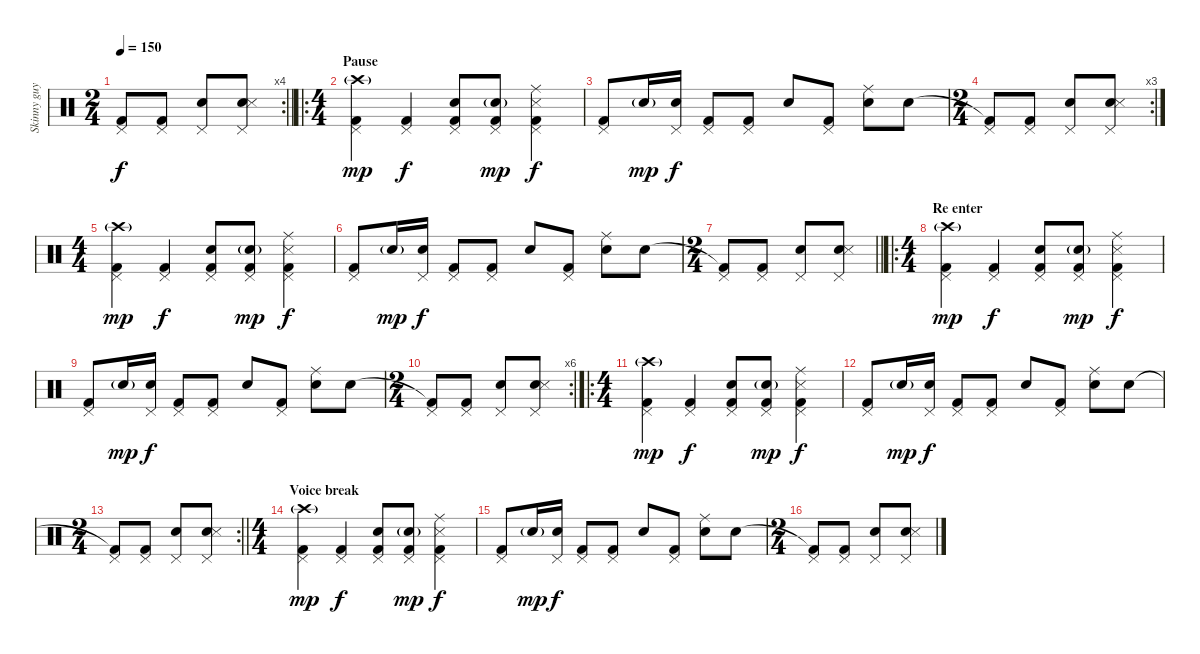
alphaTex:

\track ("Skinny guy" "Skinny guy") {instrument percussion}
\staff {score}
\articulation defaults
\rc 4
\ts (2 4)
\tempo 150
\clef neutral
\barLineRight lightlight
\ks c
("Kick (hit) 2"{t} "Pedal Hi-Hat (hit)").8{dy f} ("Kick (hit) 2" "Pedal Hi-Hat (hit)").8 ("Pedal Hi-Hat (hit)" "Snare (hit) 2").8 ("Pedal Hi-Hat (hit)" "Snare (hit) 2" "Snare (side stick) 3").8 |
\ro
\ts (4 4)
\section ("" "Pause")
("Kick (hit) 2" "Pedal Hi-Hat (hit)" "Crash high (hit)"{g}).4{dy mp} ("Kick (hit) 2" "Pedal Hi-Hat (hit)").4{dy f} ("Kick (hit) 2" "Pedal Hi-Hat (hit)" "Snare (hit) 2").8 ("Kick (hit) 2" "Pedal Hi-Hat (hit)" "Snare (hit) 2"{g}).8{dy mp} ("Kick (hit) 2" "Pedal Hi-Hat (hit)" "Snare (side stick) 3" "Ride (middle)").4{dy f} |
("Kick (hit) 2" "Pedal Hi-Hat (hit)").8 "Snare (hit) 2"{g}.16{dy mp} ("Pedal Hi-Hat (hit)" "Snare (hit) 2").16{dy f} ("Kick (hit) 2" "Pedal Hi-Hat (hit)").8 ("Kick (hit) 2" "Pedal Hi-Hat (hit)").8 "Snare (hit) 2".8 ("Kick (hit) 2" "Pedal Hi-Hat (hit)").8 ("Snare (hit) 2" "Ride (middle)").8 "Snare (hit) 2".8 |
\rc 3
\ts (2 4)
("Kick (hit) 2"{t} "Pedal Hi-Hat (hit)").8 ("Kick (hit) 2" "Pedal Hi-Hat (hit)").8 ("Pedal Hi-Hat (hit)" "Snare (hit) 2").8 ("Pedal Hi-Hat (hit)" "Snare (hit) 2" "Snare (side stick) 3").8 |
\ts (4 4)
("Kick (hit) 2" "Pedal Hi-Hat (hit)" "Crash high (hit)"{g}).4{dy mp} ("Kick (hit) 2" "Pedal Hi-Hat (hit)").4{dy f} ("Kick (hit) 2" "Pedal Hi-Hat (hit)" "Snare (hit) 2").8 ("Kick (hit) 2" "Pedal Hi-Hat (hit)" "Snare (hit) 2"{g}).8{dy mp} ("Kick (hit) 2" "Pedal Hi-Hat (hit)" "Snare (side stick) 3" "Ride (middle)").4{dy f} |
("Kick (hit) 2" "Pedal Hi-Hat (hit)").8 "Snare (hit) 2"{g}.16{dy mp} ("Pedal Hi-Hat (hit)" "Snare (hit) 2").16{dy f} ("Kick (hit) 2" "Pedal Hi-Hat (hit)").8 ("Kick (hit) 2" "Pedal Hi-Hat (hit)").8 "Snare (hit) 2".8 ("Kick (hit) 2" "Pedal Hi-Hat (hit)").8 ("Snare (hit) 2" "Ride (middle)").8 "Snare (hit) 2".8 |
\ts (2 4)
\barLineRight lightlight
("Kick (hit) 2"{t} "Pedal Hi-Hat (hit)").8 ("Kick (hit) 2" "Pedal Hi-Hat (hit)").8 ("Pedal Hi-Hat (hit)" "Snare (hit) 2").8 ("Pedal Hi-Hat (hit)" "Snare (hit) 2" "Snare (side stick) 3").8 |
\ro
\ts (4 4)
\section ("" "Re enter")
("Kick (hit) 2" "Pedal Hi-Hat (hit)" "Crash high (hit)"{g}).4{dy mp} ("Kick (hit) 2" "Pedal Hi-Hat (hit)").4{dy f} ("Kick (hit) 2" "Pedal Hi-Hat (hit)" "Snare (hit) 2").8 ("Kick (hit) 2" "Pedal Hi-Hat (hit)" "Snare (hit) 2"{g}).8{dy mp} ("Kick (hit) 2" "Pedal Hi-Hat (hit)" "Snare (side stick) 3" "Ride (middle)").4{dy f} |
("Kick (hit) 2" "Pedal Hi-Hat (hit)").8 "Snare (hit) 2"{g}.16{dy mp} ("Pedal Hi-Hat (hit)" "Snare (hit) 2").16{dy f} ("Kick (hit) 2" "Pedal Hi-Hat (hit)").8 ("Kick (hit) 2" "Pedal Hi-Hat (hit)").8 "Snare (hit) 2".8 ("Kick (hit) 2" "Pedal Hi-Hat (hit)").8 ("Snare (hit) 2" "Ride (middle)").8 "Snare (hit) 2".8 |
\rc 6
\ts (2 4)
("Kick (hit) 2"{t} "Pedal Hi-Hat (hit)").8 ("Kick (hit) 2" "Pedal Hi-Hat (hit)").8 ("Pedal Hi-Hat (hit)" "Snare (hit) 2").8 ("Pedal Hi-Hat (hit)" "Snare (hit) 2" "Snare (side stick) 3").8 |
\ro
\ts (4 4)
("Kick (hit) 2" "Pedal Hi-Hat (hit)" "Crash high (hit)"{g}).4{dy mp} ("Kick (hit) 2" "Pedal Hi-Hat (hit)").4{dy f} ("Kick (hit) 2" "Pedal Hi-Hat (hit)" "Snare (hit) 2").8 ("Kick (hit) 2" "Pedal Hi-Hat (hit)" "Snare (hit) 2"{g}).8{dy mp} ("Kick (hit) 2" "Pedal Hi-Hat (hit)" "Snare (side stick) 3" "Ride (middle)").4{dy f} |
("Kick (hit) 2" "Pedal Hi-Hat (hit)").8 "Snare (hit) 2"{g}.16{dy mp} ("Pedal Hi-Hat (hit)" "Snare (hit) 2").16{dy f} ("Kick (hit) 2" "Pedal Hi-Hat (hit)").8 ("Kick (hit) 2" "Pedal Hi-Hat (hit)").8 "Snare (hit) 2".8 ("Kick (hit) 2" "Pedal Hi-Hat (hit)").8 ("Snare (hit) 2" "Ride (middle)").8 "Snare (hit) 2".8 |
\rc 2
\ts (2 4)
\barLineRight lightlight
("Kick (hit) 2"{t} "Pedal Hi-Hat (hit)").8 ("Kick (hit) 2" "Pedal Hi-Hat (hit)").8 ("Pedal Hi-Hat (hit)" "Snare (hit) 2").8 ("Pedal Hi-Hat (hit)" "Snare (hit) 2" "Snare (side stick) 3").8 |
\ts (4 4)
\section ("" "Voice break")
("Kick (hit) 2" "Pedal Hi-Hat (hit)" "Crash high (hit)"{g}).4{dy mp} ("Kick (hit) 2" "Pedal Hi-Hat (hit)").4{dy f} ("Kick (hit) 2" "Pedal Hi-Hat (hit)" "Snare (hit) 2").8 ("Kick (hit) 2" "Pedal Hi-Hat (hit)" "Snare (hit) 2"{g}).8{dy mp} ("Kick (hit) 2" "Pedal Hi-Hat (hit)" "Snare (side stick) 3" "Ride (middle)").4{dy f} |
("Kick (hit) 2" "Pedal Hi-Hat (hit)").8 "Snare (hit) 2"{g}.16{dy mp} ("Pedal Hi-Hat (hit)" "Snare (hit) 2").16{dy f} ("Kick (hit) 2" "Pedal Hi-Hat (hit)").8 ("Kick (hit) 2" "Pedal Hi-Hat (hit)").8 "Snare (hit) 2".8 ("Kick (hit) 2" "Pedal Hi-Hat (hit)").8 ("Snare (hit) 2" "Ride (middle)").8 "Snare (hit) 2".8 |
\ts (2 4)
("Kick (hit) 2"{t} "Pedal Hi-Hat (hit)").8 ("Kick (hit) 2" "Pedal Hi-Hat (hit)").8 ("Pedal Hi-Hat (hit)" "Snare (hit) 2").8 ("Pedal Hi-Hat (hit)" "Snare (hit) 2" "Snare (side stick) 3").8
